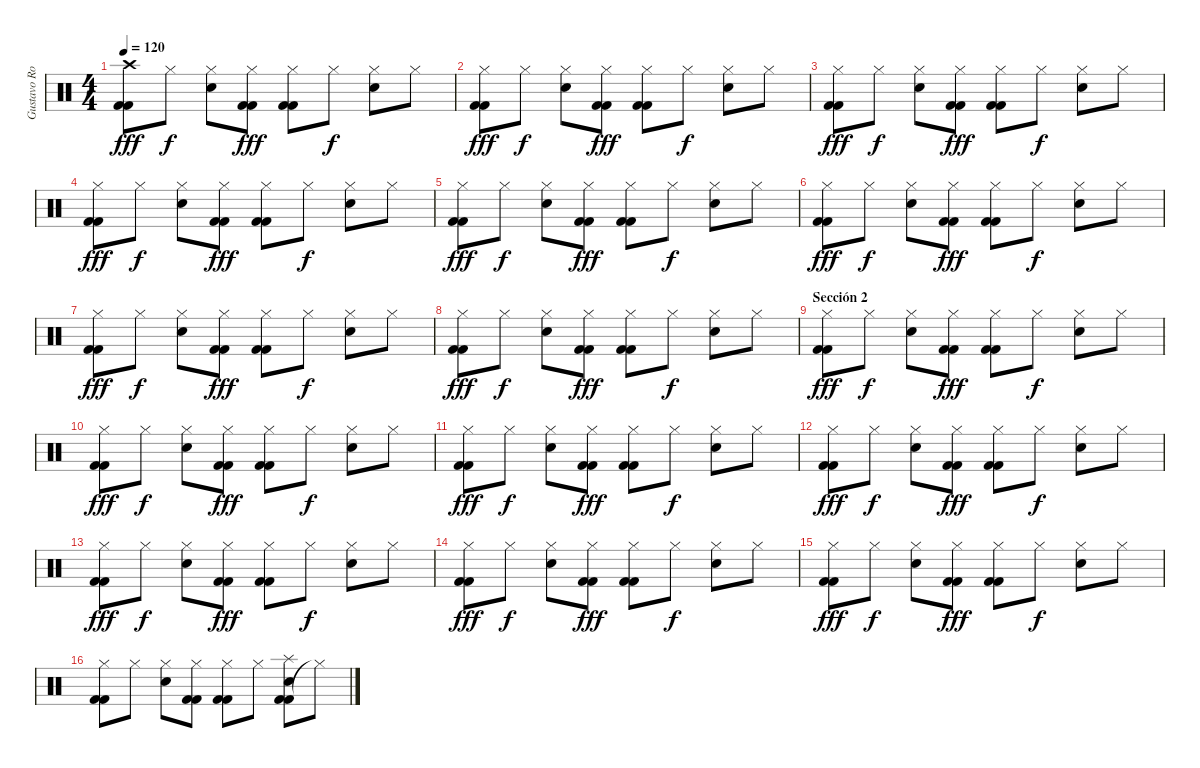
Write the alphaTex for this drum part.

\track ("Gustavo Rowek" "Gustavo Ro") {instrument percussion}
\staff {score}
\articulation defaults
\ts (4 4)
\section ("" "")
\tempo 120
\clef neutral
\ks c
("Kick (hit) 2" "Kick (hit) 2" "Crash high (hit)").8{dy fff} "Hi-Hat (closed)".8{dy f} ("Snare (hit) 2" "Hi-Hat (closed)").8 ("Kick (hit) 2" "Kick (hit) 2" "Hi-Hat (closed)").8{dy fff} ("Kick (hit) 2" "Kick (hit) 2" "Hi-Hat (closed)").8 "Hi-Hat (closed)".8{dy f} ("Snare (hit) 2" "Hi-Hat (closed)").8 "Hi-Hat (closed)".8 |
("Kick (hit) 2" "Kick (hit) 2" "Hi-Hat (closed)").8{dy fff} "Hi-Hat (closed)".8{dy f} ("Snare (hit) 2" "Hi-Hat (closed)").8 ("Kick (hit) 2" "Kick (hit) 2" "Hi-Hat (closed)").8{dy fff} ("Kick (hit) 2" "Kick (hit) 2" "Hi-Hat (closed)").8 "Hi-Hat (closed)".8{dy f} ("Snare (hit) 2" "Hi-Hat (closed)").8 "Hi-Hat (closed)".8 |
("Kick (hit) 2" "Kick (hit) 2" "Hi-Hat (closed)").8{dy fff} "Hi-Hat (closed)".8{dy f} ("Snare (hit) 2" "Hi-Hat (closed)").8 ("Kick (hit) 2" "Kick (hit) 2" "Hi-Hat (closed)").8{dy fff} ("Kick (hit) 2" "Kick (hit) 2" "Hi-Hat (closed)").8 "Hi-Hat (closed)".8{dy f} ("Snare (hit) 2" "Hi-Hat (closed)").8 "Hi-Hat (closed)".8 |
("Kick (hit) 2" "Kick (hit) 2" "Hi-Hat (closed)").8{dy fff} "Hi-Hat (closed)".8{dy f} ("Snare (hit) 2" "Hi-Hat (closed)").8 ("Kick (hit) 2" "Kick (hit) 2" "Hi-Hat (closed)").8{dy fff} ("Kick (hit) 2" "Kick (hit) 2" "Hi-Hat (closed)").8 "Hi-Hat (closed)".8{dy f} ("Snare (hit) 2" "Hi-Hat (closed)").8 "Hi-Hat (closed)".8 |
("Kick (hit) 2" "Kick (hit) 2" "Hi-Hat (closed)").8{dy fff} "Hi-Hat (closed)".8{dy f} ("Snare (hit) 2" "Hi-Hat (closed)").8 ("Kick (hit) 2" "Kick (hit) 2" "Hi-Hat (closed)").8{dy fff} ("Kick (hit) 2" "Kick (hit) 2" "Hi-Hat (closed)").8 "Hi-Hat (closed)".8{dy f} ("Snare (hit) 2" "Hi-Hat (closed)").8 "Hi-Hat (closed)".8 |
("Kick (hit) 2" "Kick (hit) 2" "Hi-Hat (closed)").8{dy fff} "Hi-Hat (closed)".8{dy f} ("Snare (hit) 2" "Hi-Hat (closed)").8 ("Kick (hit) 2" "Kick (hit) 2" "Hi-Hat (closed)").8{dy fff} ("Kick (hit) 2" "Kick (hit) 2" "Hi-Hat (closed)").8 "Hi-Hat (closed)".8{dy f} ("Snare (hit) 2" "Hi-Hat (closed)").8 "Hi-Hat (closed)".8 |
("Kick (hit) 2" "Kick (hit) 2" "Hi-Hat (closed)").8{dy fff} "Hi-Hat (closed)".8{dy f} ("Snare (hit) 2" "Hi-Hat (closed)").8 ("Kick (hit) 2" "Kick (hit) 2" "Hi-Hat (closed)").8{dy fff} ("Kick (hit) 2" "Kick (hit) 2" "Hi-Hat (closed)").8 "Hi-Hat (closed)".8{dy f} ("Snare (hit) 2" "Hi-Hat (closed)").8 "Hi-Hat (closed)".8 |
("Kick (hit) 2" "Kick (hit) 2" "Hi-Hat (closed)").8{dy fff} "Hi-Hat (closed)".8{dy f} ("Snare (hit) 2" "Hi-Hat (closed)").8 ("Kick (hit) 2" "Kick (hit) 2" "Hi-Hat (closed)").8{dy fff} ("Kick (hit) 2" "Kick (hit) 2" "Hi-Hat (closed)").8 "Hi-Hat (closed)".8{dy f} ("Snare (hit) 2" "Hi-Hat (closed)").8 "Hi-Hat (closed)".8 |
\section ("" "Sección 2")
("Kick (hit) 2" "Kick (hit) 2" "Hi-Hat (closed)").8{dy fff} "Hi-Hat (closed)".8{dy f} ("Snare (hit) 2" "Hi-Hat (closed)").8 ("Kick (hit) 2" "Kick (hit) 2" "Hi-Hat (closed)").8{dy fff} ("Kick (hit) 2" "Kick (hit) 2" "Hi-Hat (closed)").8 "Hi-Hat (closed)".8{dy f} ("Snare (hit) 2" "Hi-Hat (closed)").8 "Hi-Hat (closed)".8 |
("Kick (hit) 2" "Kick (hit) 2" "Hi-Hat (closed)").8{dy fff} "Hi-Hat (closed)".8{dy f} ("Snare (hit) 2" "Hi-Hat (closed)").8 ("Kick (hit) 2" "Kick (hit) 2" "Hi-Hat (closed)").8{dy fff} ("Kick (hit) 2" "Kick (hit) 2" "Hi-Hat (closed)").8 "Hi-Hat (closed)".8{dy f} ("Snare (hit) 2" "Hi-Hat (closed)").8 "Hi-Hat (closed)".8 |
("Kick (hit) 2" "Kick (hit) 2" "Hi-Hat (closed)").8{dy fff} "Hi-Hat (closed)".8{dy f} ("Snare (hit) 2" "Hi-Hat (closed)").8 ("Kick (hit) 2" "Kick (hit) 2" "Hi-Hat (closed)").8{dy fff} ("Kick (hit) 2" "Kick (hit) 2" "Hi-Hat (closed)").8 "Hi-Hat (closed)".8{dy f} ("Snare (hit) 2" "Hi-Hat (closed)").8 "Hi-Hat (closed)".8 |
("Kick (hit) 2" "Kick (hit) 2" "Hi-Hat (closed)").8{dy fff} "Hi-Hat (closed)".8{dy f} ("Snare (hit) 2" "Hi-Hat (closed)").8 ("Kick (hit) 2" "Kick (hit) 2" "Hi-Hat (closed)").8{dy fff} ("Kick (hit) 2" "Kick (hit) 2" "Hi-Hat (closed)").8 "Hi-Hat (closed)".8{dy f} ("Snare (hit) 2" "Hi-Hat (closed)").8 "Hi-Hat (closed)".8 |
("Kick (hit) 2" "Kick (hit) 2" "Hi-Hat (closed)").8{dy fff} "Hi-Hat (closed)".8{dy f} ("Snare (hit) 2" "Hi-Hat (closed)").8 ("Kick (hit) 2" "Kick (hit) 2" "Hi-Hat (closed)").8{dy fff} ("Kick (hit) 2" "Kick (hit) 2" "Hi-Hat (closed)").8 "Hi-Hat (closed)".8{dy f} ("Snare (hit) 2" "Hi-Hat (closed)").8 "Hi-Hat (closed)".8 |
("Kick (hit) 2" "Kick (hit) 2" "Hi-Hat (closed)").8{dy fff} "Hi-Hat (closed)".8{dy f} ("Snare (hit) 2" "Hi-Hat (closed)").8 ("Kick (hit) 2" "Kick (hit) 2" "Hi-Hat (closed)").8{dy fff} ("Kick (hit) 2" "Kick (hit) 2" "Hi-Hat (closed)").8 "Hi-Hat (closed)".8{dy f} ("Snare (hit) 2" "Hi-Hat (closed)").8 "Hi-Hat (closed)".8 |
("Kick (hit) 2" "Kick (hit) 2" "Hi-Hat (closed)").8{dy fff} "Hi-Hat (closed)".8{dy f} ("Snare (hit) 2" "Hi-Hat (closed)").8 ("Kick (hit) 2" "Kick (hit) 2" "Hi-Hat (closed)").8{dy fff} ("Kick (hit) 2" "Kick (hit) 2" "Hi-Hat (closed)").8 "Hi-Hat (closed)".8{dy f} ("Snare (hit) 2" "Hi-Hat (closed)").8 "Hi-Hat (closed)".8 |
("Kick (hit) 2" "Kick (hit) 2" "Hi-Hat (closed)").8 "Hi-Hat (closed)".8 ("Snare (hit) 2" "Hi-Hat (closed)").8 ("Kick (hit) 2" "Kick (hit) 2" "Hi-Hat (closed)").8 ("Kick (hit) 2" "Kick (hit) 2" "Hi-Hat (closed)").8 "Hi-Hat (closed)".8 ("Kick (hit) 2" "Kick (hit) 2" "Snare (hit) 2" "Splash (hit)").8 "Hi-Hat (closed)"{t}.8
